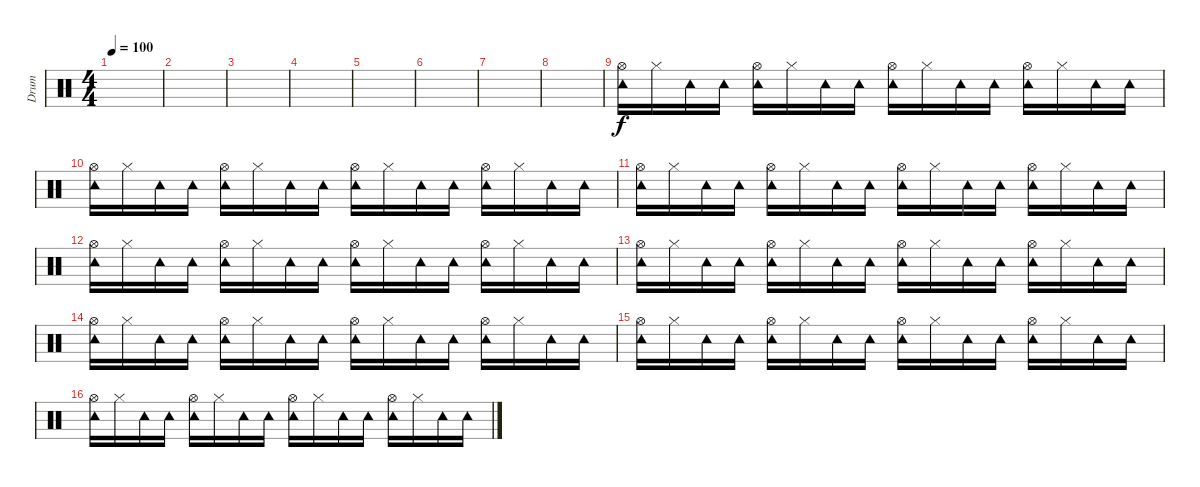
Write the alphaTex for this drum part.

\track ("Drum" "Drum") {instrument percussion}
\staff {score}
\articulation defaults
\ts (4 4)
\tempo 100
\clef neutral
\ks c
|
|
|
|
|
|
|
|
("Hi-Hat (open)" "Tambourine (hit)").16 "Hi-Hat (closed)".16 "Tambourine (hit)".16 "Tambourine (hit)".16 ("Hi-Hat (open)" "Tambourine (hit)").16 "Hi-Hat (closed)".16 "Tambourine (hit)".16 "Tambourine (hit)".16 ("Hi-Hat (open)" "Tambourine (hit)").16 "Hi-Hat (closed)".16 "Tambourine (hit)".16 "Tambourine (hit)".16 ("Hi-Hat (open)" "Tambourine (hit)").16 "Hi-Hat (closed)".16 "Tambourine (hit)".16 "Tambourine (hit)".16 |
("Hi-Hat (open)" "Tambourine (hit)").16 "Hi-Hat (closed)".16 "Tambourine (hit)".16 "Tambourine (hit)".16 ("Hi-Hat (open)" "Tambourine (hit)").16 "Hi-Hat (closed)".16 "Tambourine (hit)".16 "Tambourine (hit)".16 ("Hi-Hat (open)" "Tambourine (hit)").16 "Hi-Hat (closed)".16 "Tambourine (hit)".16 "Tambourine (hit)".16 ("Hi-Hat (open)" "Tambourine (hit)").16 "Hi-Hat (closed)".16 "Tambourine (hit)".16 "Tambourine (hit)".16 |
("Hi-Hat (open)" "Tambourine (hit)").16 "Hi-Hat (closed)".16 "Tambourine (hit)".16 "Tambourine (hit)".16 ("Hi-Hat (open)" "Tambourine (hit)").16 "Hi-Hat (closed)".16 "Tambourine (hit)".16 "Tambourine (hit)".16 ("Hi-Hat (open)" "Tambourine (hit)").16 "Hi-Hat (closed)".16 "Tambourine (hit)".16 "Tambourine (hit)".16 ("Hi-Hat (open)" "Tambourine (hit)").16 "Hi-Hat (closed)".16 "Tambourine (hit)".16 "Tambourine (hit)".16 |
("Hi-Hat (open)" "Tambourine (hit)").16 "Hi-Hat (closed)".16 "Tambourine (hit)".16 "Tambourine (hit)".16 ("Hi-Hat (open)" "Tambourine (hit)").16 "Hi-Hat (closed)".16 "Tambourine (hit)".16 "Tambourine (hit)".16 ("Hi-Hat (open)" "Tambourine (hit)").16 "Hi-Hat (closed)".16 "Tambourine (hit)".16 "Tambourine (hit)".16 ("Hi-Hat (open)" "Tambourine (hit)").16 "Hi-Hat (closed)".16 "Tambourine (hit)".16 "Tambourine (hit)".16 |
("Hi-Hat (open)" "Tambourine (hit)").16 "Hi-Hat (closed)".16 "Tambourine (hit)".16 "Tambourine (hit)".16 ("Hi-Hat (open)" "Tambourine (hit)").16 "Hi-Hat (closed)".16 "Tambourine (hit)".16 "Tambourine (hit)".16 ("Hi-Hat (open)" "Tambourine (hit)").16 "Hi-Hat (closed)".16 "Tambourine (hit)".16 "Tambourine (hit)".16 ("Hi-Hat (open)" "Tambourine (hit)").16 "Hi-Hat (closed)".16 "Tambourine (hit)".16 "Tambourine (hit)".16 |
("Hi-Hat (open)" "Tambourine (hit)").16 "Hi-Hat (closed)".16 "Tambourine (hit)".16 "Tambourine (hit)".16 ("Hi-Hat (open)" "Tambourine (hit)").16 "Hi-Hat (closed)".16 "Tambourine (hit)".16 "Tambourine (hit)".16 ("Hi-Hat (open)" "Tambourine (hit)").16 "Hi-Hat (closed)".16 "Tambourine (hit)".16 "Tambourine (hit)".16 ("Hi-Hat (open)" "Tambourine (hit)").16 "Hi-Hat (closed)".16 "Tambourine (hit)".16 "Tambourine (hit)".16 |
("Hi-Hat (open)" "Tambourine (hit)").16 "Hi-Hat (closed)".16 "Tambourine (hit)".16 "Tambourine (hit)".16 ("Hi-Hat (open)" "Tambourine (hit)").16 "Hi-Hat (closed)".16 "Tambourine (hit)".16 "Tambourine (hit)".16 ("Hi-Hat (open)" "Tambourine (hit)").16 "Hi-Hat (closed)".16 "Tambourine (hit)".16 "Tambourine (hit)".16 ("Hi-Hat (open)" "Tambourine (hit)").16 "Hi-Hat (closed)".16 "Tambourine (hit)".16 "Tambourine (hit)".16 |
("Hi-Hat (open)" "Tambourine (hit)").16 "Hi-Hat (closed)".16 "Tambourine (hit)".16 "Tambourine (hit)".16 ("Hi-Hat (open)" "Tambourine (hit)").16 "Hi-Hat (closed)".16 "Tambourine (hit)".16 "Tambourine (hit)".16 ("Hi-Hat (open)" "Tambourine (hit)").16 "Hi-Hat (closed)".16 "Tambourine (hit)".16 "Tambourine (hit)".16 ("Hi-Hat (open)" "Tambourine (hit)").16 "Hi-Hat (closed)".16 "Tambourine (hit)".16 "Tambourine (hit)".16
